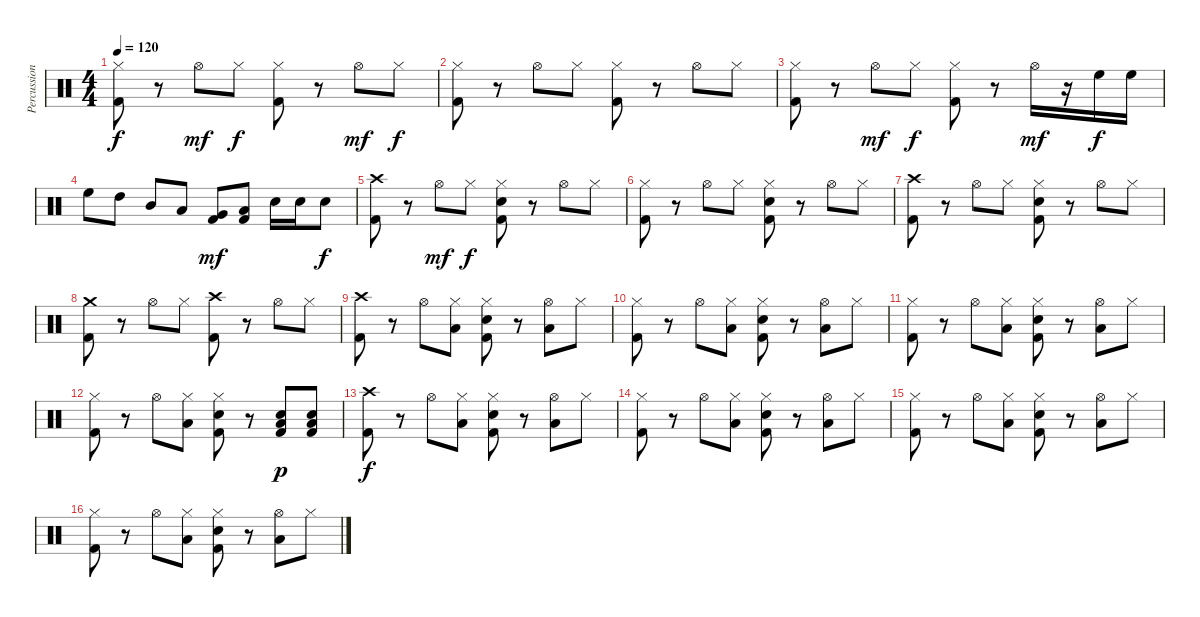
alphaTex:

\track ("Percussion" "Percussion") {instrument percussion}
\staff {score}
\articulation defaults
\ts (4 4)
\tempo 120
\clef neutral
\ks c
("Hi-Hat (closed)" "Kick (hit) 2").8{dy f} r.8 "Hi-Hat (open)".8{dy mf} "Hi-Hat (closed)".8{dy f} ("Hi-Hat (closed)" "Kick (hit) 2").8 r.8 "Hi-Hat (open)".8{dy mf} "Hi-Hat (closed)".8{dy f} |
("Hi-Hat (closed)" "Kick (hit) 2").8 r.8 "Hi-Hat (open)".8 "Hi-Hat (closed)".8 ("Hi-Hat (closed)" "Kick (hit) 2").8 r.8 "Hi-Hat (open)".8 "Hi-Hat (closed)".8 |
("Hi-Hat (closed)" "Kick (hit) 2").8 r.8 "Hi-Hat (open)".8{dy mf} "Hi-Hat (closed)".8{dy f} ("Hi-Hat (closed)" "Kick (hit) 2").8 r.8 "Hi-Hat (open)".16{dy mf} r.16 "High Floor Tom (hit)".16{dy f} "High Floor Tom (hit)".16 |
"High Floor Tom (hit)".8 "High Tom (hit)".8 "Mid Tom (hit)".8 "Low Tom (hit)".8 ("Very Low Tom (hit)" "Kick (hit) 2").8{dy mf} ("Low Floor Tom (hit)" "Kick (hit) 2").8 "Snare (hit) 2".16 "Snare (hit) 2".16 "Snare (hit) 2".8{dy f} |
("Crash high (hit)" "Kick (hit) 2").8 r.8 "Hi-Hat (open)".8{dy mf} "Hi-Hat (closed)".8{dy f} ("Hi-Hat (closed)" "Snare (hit) 2" "Kick (hit) 2").8 r.8 "Hi-Hat (open)".8 "Hi-Hat (closed)".8 |
("Hi-Hat (closed)" "Kick (hit) 2").8 r.8 "Hi-Hat (open)".8 "Hi-Hat (closed)".8 ("Hi-Hat (closed)" "Snare (hit) 2" "Kick (hit) 2").8 r.8 "Hi-Hat (open)".8 "Hi-Hat (closed)".8 |
("Crash high (hit)" "Kick (hit) 2").8 r.8 "Hi-Hat (open)".8 "Hi-Hat (closed)".8 ("Hi-Hat (closed)" "Snare (hit) 2" "Kick (hit) 2").8 r.8 "Hi-Hat (open)".8 "Hi-Hat (closed)".8 |
("Crash medium (hit)" "Kick (hit) 2").8 r.8 "Hi-Hat (open)".8 "Hi-Hat (closed)".8 ("Crash high (hit)" "Kick (hit) 2").8 r.8 "Hi-Hat (open)".8 "Hi-Hat (closed)".8 |
("Crash high (hit)" "Kick (hit) 2").8 r.8 "Hi-Hat (open)".8 ("Hi-Hat (closed)" "Low Tom (hit)").8 ("Hi-Hat (closed)" "Snare (hit) 2" "Kick (hit) 2").8 r.8 ("Hi-Hat (open)" "Low Floor Tom (hit)").8 "Hi-Hat (closed)".8 |
("Hi-Hat (closed)" "Kick (hit) 2").8 r.8 "Hi-Hat (open)".8 ("Hi-Hat (closed)" "Low Tom (hit)").8 ("Hi-Hat (closed)" "Snare (hit) 2" "Kick (hit) 2").8 r.8 ("Hi-Hat (open)" "Low Floor Tom (hit)").8 "Hi-Hat (closed)".8 |
("Hi-Hat (closed)" "Kick (hit) 2").8 r.8 "Hi-Hat (open)".8 ("Hi-Hat (closed)" "Low Tom (hit)").8 ("Hi-Hat (closed)" "Snare (hit) 2" "Kick (hit) 2").8 r.8 ("Hi-Hat (open)" "Low Floor Tom (hit)").8 "Hi-Hat (closed)".8 |
("Hi-Hat (closed)" "Kick (hit) 2").8 r.8 "Hi-Hat (open)".8 ("Hi-Hat (closed)" "Low Tom (hit)").8 ("Hi-Hat (closed)" "Snare (hit) 2" "Kick (hit) 2").8 r.8 ("Low Tom (hit)" "Snare (hit) 2" "Kick (hit) 2").8{dy p} ("Low Floor Tom (hit)" "Snare (hit) 2" "Kick (hit) 2").8 |
("Crash high (hit)" "Kick (hit) 2").8{dy f} r.8 "Hi-Hat (open)".8 ("Hi-Hat (closed)" "Low Tom (hit)").8 ("Hi-Hat (closed)" "Snare (hit) 2" "Kick (hit) 2").8 r.8 ("Hi-Hat (open)" "Low Floor Tom (hit)").8 "Hi-Hat (closed)".8 |
("Hi-Hat (closed)" "Kick (hit) 2").8 r.8 "Hi-Hat (open)".8 ("Hi-Hat (closed)" "Low Tom (hit)").8 ("Hi-Hat (closed)" "Snare (hit) 2" "Kick (hit) 2").8 r.8 ("Hi-Hat (open)" "Low Floor Tom (hit)").8 "Hi-Hat (closed)".8 |
("Hi-Hat (closed)" "Kick (hit) 2").8 r.8 "Hi-Hat (open)".8 ("Hi-Hat (closed)" "Low Tom (hit)").8 ("Hi-Hat (closed)" "Snare (hit) 2" "Kick (hit) 2").8 r.8 ("Hi-Hat (open)" "Low Floor Tom (hit)").8 "Hi-Hat (closed)".8 |
("Hi-Hat (closed)" "Kick (hit) 2").8 r.8 "Hi-Hat (open)".8 ("Hi-Hat (closed)" "Low Tom (hit)").8 ("Hi-Hat (closed)" "Snare (hit) 2" "Kick (hit) 2").8 r.8 ("Hi-Hat (open)" "Low Floor Tom (hit)").8 "Hi-Hat (closed)".8
